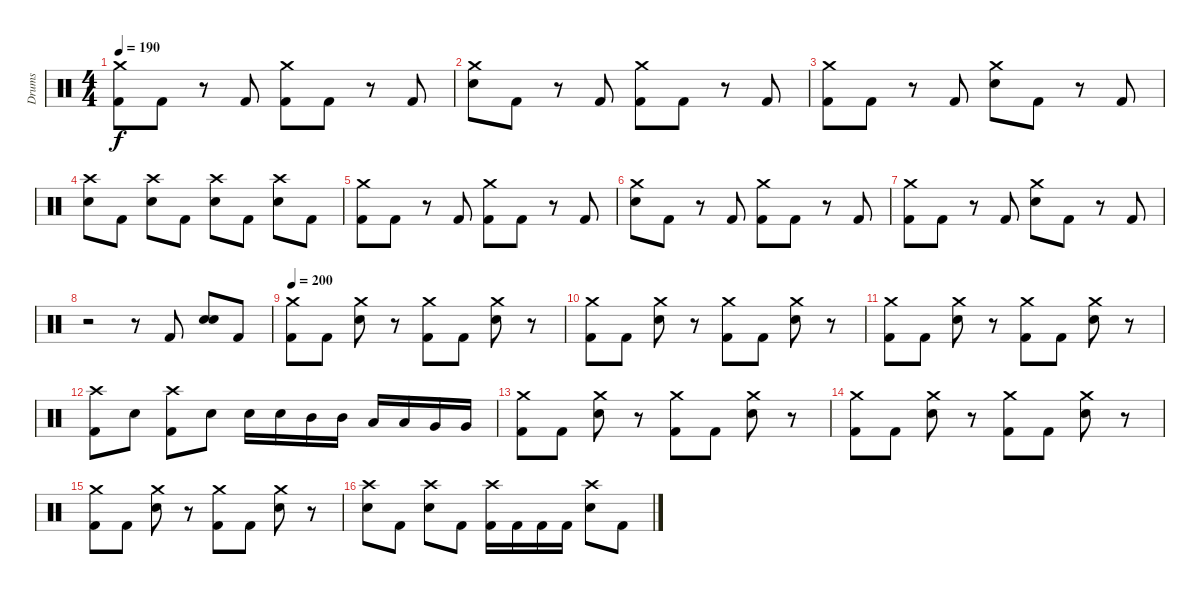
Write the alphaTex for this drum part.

\track ("Drums" "Drums") {instrument percussion}
\staff {score}
\articulation defaults
\ts (4 4)
\tempo 190
\clef neutral
\ks c
("Crash medium (hit)" "Kick (hit) 2").8{dy f} "Kick (hit) 2".8 r.8 "Kick (hit) 2".8 ("Crash medium (hit)" "Kick (hit) 2").8 "Kick (hit) 2".8 r.8 "Kick (hit) 2".8 |
("Crash medium (hit)" "Electric Snare (hit)").8 "Kick (hit) 2".8 r.8 "Kick (hit) 2".8 ("Crash medium (hit)" "Kick (hit) 2").8 "Kick (hit) 2".8 r.8 "Kick (hit) 2".8 |
("Crash medium (hit)" "Kick (hit) 2").8 "Kick (hit) 2".8 r.8 "Kick (hit) 2".8 ("Crash medium (hit)" "Electric Snare (hit)").8 "Kick (hit) 2".8 r.8 "Kick (hit) 2".8 |
("Crash high (hit)" "Electric Snare (hit)").8 "Kick (hit) 2".8 ("Crash high (hit)" "Electric Snare (hit)").8 "Kick (hit) 2".8 ("Crash high (hit)" "Electric Snare (hit)").8 "Kick (hit) 2".8 ("Crash high (hit)" "Electric Snare (hit)").8 "Kick (hit) 2".8 |
("Crash medium (hit)" "Kick (hit) 2").8 "Kick (hit) 2".8 r.8 "Kick (hit) 2".8 ("Crash medium (hit)" "Kick (hit) 2").8 "Kick (hit) 2".8 r.8 "Kick (hit) 2".8 |
("Crash medium (hit)" "Electric Snare (hit)").8 "Kick (hit) 2".8 r.8 "Kick (hit) 2".8 ("Crash medium (hit)" "Kick (hit) 2").8 "Kick (hit) 2".8 r.8 "Kick (hit) 2".8 |
("Crash medium (hit)" "Kick (hit) 2").8 "Kick (hit) 2".8 r.8 "Kick (hit) 2".8 ("Crash medium (hit)" "Electric Snare (hit)").8 "Kick (hit) 2".8 r.8 "Kick (hit) 2".8 |
r.2 r.8 "Kick (hit) 2".8 ("Electric Snare (hit)" "Electric Snare (hit)").8 "Kick (hit) 2".8 |
\tempo 200
("Crash medium (hit)" "Kick (hit) 2").8 "Kick (hit) 2".8 ("Crash medium (hit)" "Electric Snare (hit)").8 r.8 ("Crash medium (hit)" "Kick (hit) 2").8 "Kick (hit) 2".8 ("Crash medium (hit)" "Electric Snare (hit)").8 r.8 |
("Crash medium (hit)" "Kick (hit) 2").8 "Kick (hit) 2".8 ("Crash medium (hit)" "Electric Snare (hit)").8 r.8 ("Crash medium (hit)" "Kick (hit) 2").8 "Kick (hit) 2".8 ("Crash medium (hit)" "Electric Snare (hit)").8 r.8 |
("Crash medium (hit)" "Kick (hit) 2").8 "Kick (hit) 2".8 ("Crash medium (hit)" "Electric Snare (hit)").8 r.8 ("Crash medium (hit)" "Kick (hit) 2").8 "Kick (hit) 2".8 ("Crash medium (hit)" "Electric Snare (hit)").8 r.8 |
("Crash high (hit)" "Kick (hit) 2").8 "Electric Snare (hit)".8 ("Crash high (hit)" "Kick (hit) 2").8 "Electric Snare (hit)".8 "Electric Snare (hit)".16 "Electric Snare (hit)".16 "Mid Tom (hit)".16 "Mid Tom (hit)".16 "Low Tom (hit)".16 "Low Tom (hit)".16 "Very Low Tom (hit)".16 "Very Low Tom (hit)".16 |
("Crash medium (hit)" "Kick (hit) 2").8 "Kick (hit) 2".8 ("Crash medium (hit)" "Electric Snare (hit)").8 r.8 ("Crash medium (hit)" "Kick (hit) 2").8 "Kick (hit) 2".8 ("Crash medium (hit)" "Electric Snare (hit)").8 r.8 |
("Crash medium (hit)" "Kick (hit) 2").8 "Kick (hit) 2".8 ("Crash medium (hit)" "Electric Snare (hit)").8 r.8 ("Crash medium (hit)" "Kick (hit) 2").8 "Kick (hit) 2".8 ("Crash medium (hit)" "Electric Snare (hit)").8 r.8 |
("Crash medium (hit)" "Kick (hit) 2").8 "Kick (hit) 2".8 ("Crash medium (hit)" "Electric Snare (hit)").8 r.8 ("Crash medium (hit)" "Kick (hit) 2").8 "Kick (hit) 2".8 ("Crash medium (hit)" "Electric Snare (hit)").8 r.8 |
("Crash high (hit)" "Electric Snare (hit)").8 "Kick (hit) 2".8 ("Crash high (hit)" "Electric Snare (hit)").8 "Kick (hit) 2".8 ("Crash high (hit)" "Kick (hit) 2").16 "Kick (hit) 2".16 "Kick (hit) 2".16 "Kick (hit) 2".16 ("Crash high (hit)" "Electric Snare (hit)").8 "Kick (hit) 2".8
